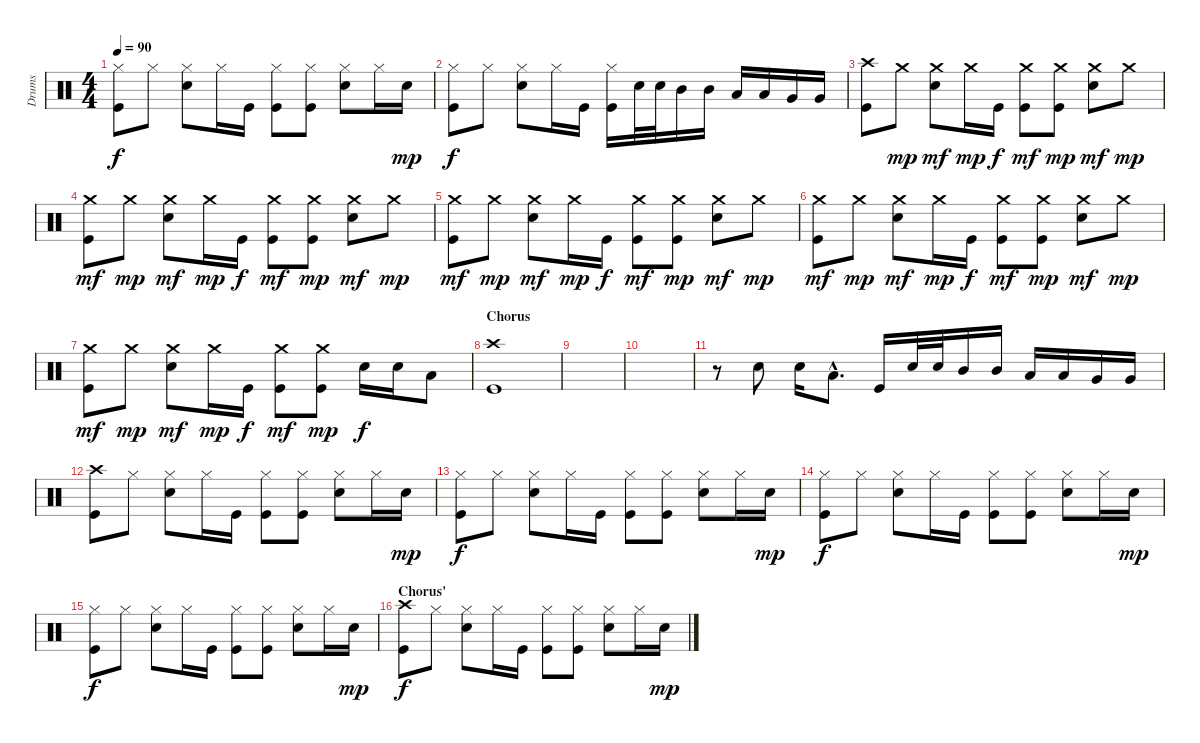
\track ("Drums" "Drums") {instrument percussion}
\staff {score}
\articulation defaults
\ts (4 4)
\tempo 90
\clef neutral
\ks c
("Hi-Hat (closed)" "Kick (hit)").8{dy f} "Hi-Hat (closed)".8 ("Hi-Hat (closed)" "Snare (hit) 2").8 "Hi-Hat (closed)".16 "Kick (hit)".16 ("Hi-Hat (closed)" "Kick (hit)").8 ("Hi-Hat (closed)" "Kick (hit)").8 ("Hi-Hat (closed)" "Snare (hit) 2").8 "Hi-Hat (closed)".16 "Snare (hit) 2".16{dy mp} |
("Hi-Hat (closed)" "Kick (hit)").8{dy f} "Hi-Hat (closed)".8 ("Hi-Hat (closed)" "Snare (hit) 2").8 "Hi-Hat (closed)".16 "Kick (hit)".16 ("Hi-Hat (closed)" "Kick (hit)").16 "Snare (hit) 2".32 "Snare (hit) 2".32 "Mid Tom (hit)".16 "Mid Tom (hit)".16 "Low Tom (hit)".16 "Low Tom (hit)".16 "Very Low Tom (hit)".16 "Very Low Tom (hit)".16 |
("Crash high (hit)" "Kick (hit)").8 "Crash medium (hit)".8{dy mp} ("Crash medium (hit)" "Snare (hit) 2").8{dy mf} "Crash medium (hit)".16{dy mp} "Kick (hit)".16{dy f} ("Crash medium (hit)" "Kick (hit)").8{dy mf} ("Crash medium (hit)" "Kick (hit)").8{dy mp} ("Crash medium (hit)" "Snare (hit) 2").8{dy mf} "Crash medium (hit)".8{dy mp} |
("Crash medium (hit)" "Kick (hit)").8{dy mf} "Crash medium (hit)".8{dy mp} ("Crash medium (hit)" "Snare (hit) 2").8{dy mf} "Crash medium (hit)".16{dy mp} "Kick (hit)".16{dy f} ("Crash medium (hit)" "Kick (hit)").8{dy mf} ("Crash medium (hit)" "Kick (hit)").8{dy mp} ("Crash medium (hit)" "Snare (hit) 2").8{dy mf} "Crash medium (hit)".8{dy mp} |
("Crash medium (hit)" "Kick (hit)").8{dy mf} "Crash medium (hit)".8{dy mp} ("Crash medium (hit)" "Snare (hit) 2").8{dy mf} "Crash medium (hit)".16{dy mp} "Kick (hit)".16{dy f} ("Crash medium (hit)" "Kick (hit)").8{dy mf} ("Crash medium (hit)" "Kick (hit)").8{dy mp} ("Crash medium (hit)" "Snare (hit) 2").8{dy mf} "Crash medium (hit)".8{dy mp} |
("Crash medium (hit)" "Kick (hit)").8{dy mf} "Crash medium (hit)".8{dy mp} ("Crash medium (hit)" "Snare (hit) 2").8{dy mf} "Crash medium (hit)".16{dy mp} "Kick (hit)".16{dy f} ("Crash medium (hit)" "Kick (hit)").8{dy mf} ("Crash medium (hit)" "Kick (hit)").8{dy mp} ("Crash medium (hit)" "Snare (hit) 2").8{dy mf} "Crash medium (hit)".8{dy mp} |
("Crash medium (hit)" "Kick (hit)").8{dy mf} "Crash medium (hit)".8{dy mp} ("Crash medium (hit)" "Snare (hit) 2").8{dy mf} "Crash medium (hit)".16{dy mp} "Kick (hit)".16{dy f} ("Crash medium (hit)" "Kick (hit)").8{dy mf} ("Crash medium (hit)" "Kick (hit)").8{dy mp} "Snare (hit) 2".16{dy f} "Snare (hit) 2".16 "Low Tom (hit)".8 |
\section ("" "Chorus")
("Crash high (hit)" "Kick (hit)").1 |
|
|
r.8 "Snare (hit) 2".8 "Snare (hit) 2".16 "Low Tom (hit)"{hac}.8{d} "Kick (hit)".16 "Snare (hit) 2".32 "Snare (hit) 2".32 "Mid Tom (hit)".16 "Mid Tom (hit)".16 "Low Tom (hit)".16 "Low Tom (hit)".16 "Very Low Tom (hit)".16 "Very Low Tom (hit)".16 |
("Crash high (hit)" "Kick (hit)").8 "Hi-Hat (closed)".8 ("Hi-Hat (closed)" "Snare (hit) 2").8 "Hi-Hat (closed)".16 "Kick (hit)".16 ("Hi-Hat (closed)" "Kick (hit)").8 ("Hi-Hat (closed)" "Kick (hit)").8 ("Hi-Hat (closed)" "Snare (hit) 2").8 "Hi-Hat (closed)".16 "Snare (hit) 2".16{dy mp} |
("Hi-Hat (closed)" "Kick (hit)").8{dy f} "Hi-Hat (closed)".8 ("Hi-Hat (closed)" "Snare (hit) 2").8 "Hi-Hat (closed)".16 "Kick (hit)".16 ("Hi-Hat (closed)" "Kick (hit)").8 ("Hi-Hat (closed)" "Kick (hit)").8 ("Hi-Hat (closed)" "Snare (hit) 2").8 "Hi-Hat (closed)".16 "Snare (hit) 2".16{dy mp} |
("Hi-Hat (closed)" "Kick (hit)").8{dy f} "Hi-Hat (closed)".8 ("Hi-Hat (closed)" "Snare (hit) 2").8 "Hi-Hat (closed)".16 "Kick (hit)".16 ("Hi-Hat (closed)" "Kick (hit)").8 ("Hi-Hat (closed)" "Kick (hit)").8 ("Hi-Hat (closed)" "Snare (hit) 2").8 "Hi-Hat (closed)".16 "Snare (hit) 2".16{dy mp} |
("Hi-Hat (closed)" "Kick (hit)").8{dy f} "Hi-Hat (closed)".8 ("Hi-Hat (closed)" "Snare (hit) 2").8 "Hi-Hat (closed)".16 "Kick (hit)".16 ("Hi-Hat (closed)" "Kick (hit)").8 ("Hi-Hat (closed)" "Kick (hit)").8 ("Hi-Hat (closed)" "Snare (hit) 2").8 "Hi-Hat (closed)".16 "Snare (hit) 2".16{dy mp} |
\section ("" "Chorus'")
("Crash high (hit)" "Kick (hit)").8{dy f} "Hi-Hat (closed)".8 ("Hi-Hat (closed)" "Snare (hit) 2").8 "Hi-Hat (closed)".16 "Kick (hit)".16 ("Hi-Hat (closed)" "Kick (hit)").8 ("Hi-Hat (closed)" "Kick (hit)").8 ("Hi-Hat (closed)" "Snare (hit) 2").8 "Hi-Hat (closed)".16 "Snare (hit) 2".16{dy mp}
